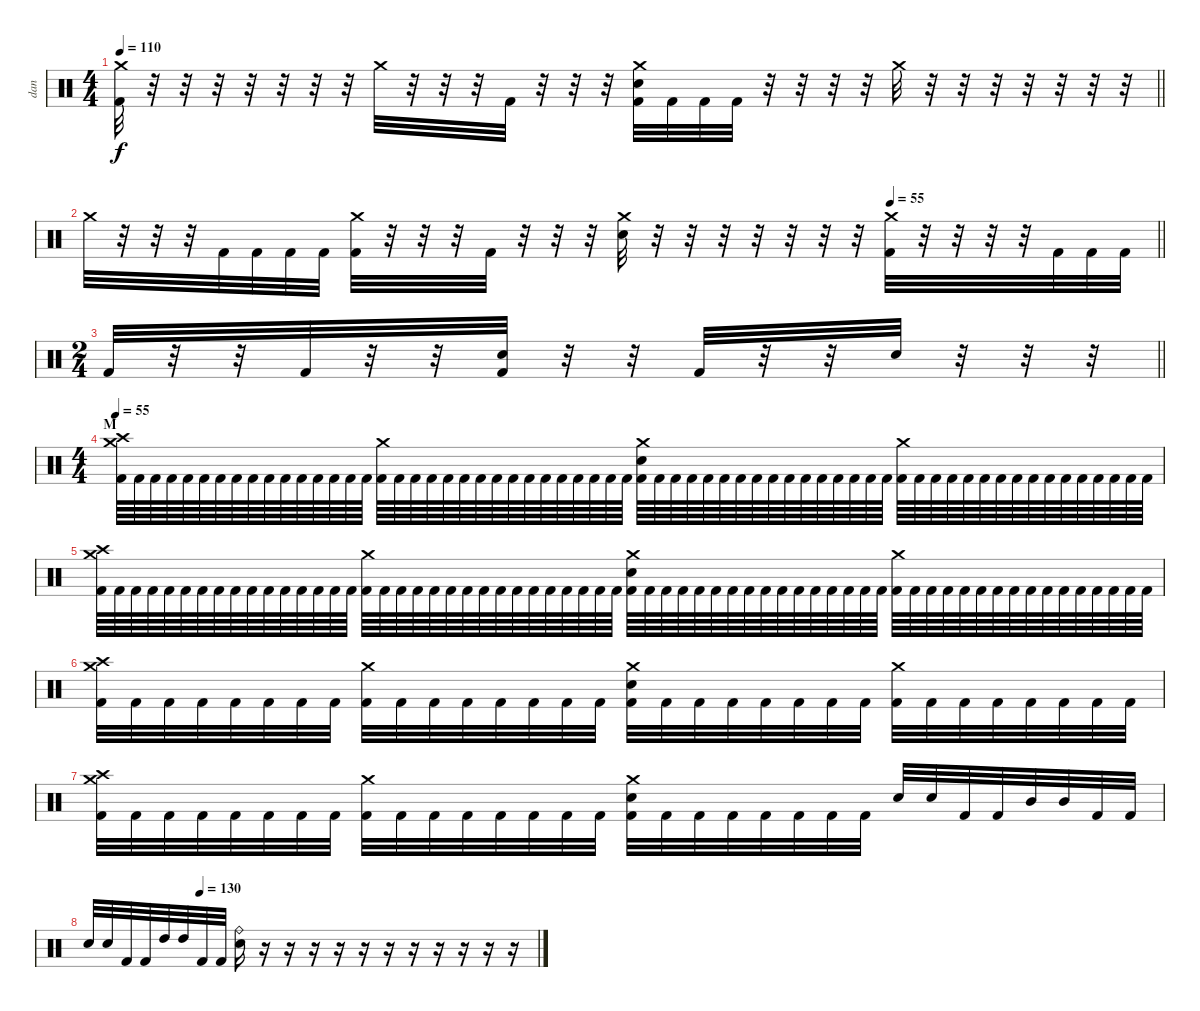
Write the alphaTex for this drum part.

\track ("dan" "dan") {instrument percussion}
\staff {score}
\articulation defaults
\ts (4 4)
\tempo 110
\clef neutral
\barLineRight lightlight
\ks c
("Crash medium (hit)" "Kick (hit) 2").32{dy f} r.32 r.32 r.32 r.32 r.32 r.32 r.32 "Crash medium (hit)".32 r.32 r.32 r.32 "Kick (hit) 2".32 r.32 r.32 r.32 ("Crash medium (hit)" "Electric Snare (hit)" "Kick (hit) 2").32 "Kick (hit) 2".32 "Kick (hit) 2".32 "Kick (hit) 2".32 r.32 r.32 r.32 r.32 "Crash medium (hit)".32 r.32 r.32 r.32 r.32 r.32 r.32 r.32 |
\tempo (55 0.75)
\barLineRight lightlight "Crash medium (hit)".32
r.32 r.32 r.32 "Kick (hit) 2".32 "Kick (hit) 2".32 "Kick (hit) 2".32 "Kick (hit) 2".32 ("Crash medium (hit)" "Kick (hit) 2").32 r.32 r.32 r.32 "Kick (hit) 2".32 r.32 r.32 r.32 ("Crash medium (hit)" "Electric Snare (hit)").32 r.32 r.32 r.32 r.32 r.32 r.32 r.32 ("Crash medium (hit)" "Kick (hit) 2").32 r.32 r.32 r.32 r.32 "Kick (hit) 2".32 "Kick (hit) 2".32 "Kick (hit) 2".32 |
\ts (2 4)
\barLineRight lightlight "Kick (hit) 2".32
r.32 r.32 "Kick (hit) 2".32 r.32 r.32 ("Electric Snare (hit)" "Kick (hit) 2").32 r.32 r.32 "Kick (hit) 2".32 r.32 r.32 "Electric Snare (hit)".32 r.32 r.32 r.32 |
\ts (4 4)
\section ("" "M")
\tempo 55
("Crash medium (hit)" "Crash high (hit)" "Kick (hit) 2").64 "Kick (hit) 2".64 "Kick (hit) 2".64 "Kick (hit) 2".64 "Kick (hit) 2".64 "Kick (hit) 2".64 "Kick (hit) 2".64 "Kick (hit) 2".64 "Kick (hit) 2".64 "Kick (hit) 2".64 "Kick (hit) 2".64 "Kick (hit) 2".64 "Kick (hit) 2".64 "Kick (hit) 2".64 "Kick (hit) 2".64 "Kick (hit) 2".64 ("Crash medium (hit)" "Kick (hit) 2").64 "Kick (hit) 2".64 "Kick (hit) 2".64 "Kick (hit) 2".64 "Kick (hit) 2".64 "Kick (hit) 2".64 "Kick (hit) 2".64 "Kick (hit) 2".64 "Kick (hit) 2".64 "Kick (hit) 2".64 "Kick (hit) 2".64 "Kick (hit) 2".64 "Kick (hit) 2".64 "Kick (hit) 2".64 "Kick (hit) 2".64 "Kick (hit) 2".64 ("Crash medium (hit)" "Electric Snare (hit)" "Kick (hit) 2").64 "Kick (hit) 2".64 "Kick (hit) 2".64 "Kick (hit) 2".64 "Kick (hit) 2".64 "Kick (hit) 2".64 "Kick (hit) 2".64 "Kick (hit) 2".64 "Kick (hit) 2".64 "Kick (hit) 2".64 "Kick (hit) 2".64 "Kick (hit) 2".64 "Kick (hit) 2".64 "Kick (hit) 2".64 "Kick (hit) 2".64 "Kick (hit) 2".64 ("Crash medium (hit)" "Kick (hit) 2").64 "Kick (hit) 2".64 "Kick (hit) 2".64 "Kick (hit) 2".64 "Kick (hit) 2".64 "Kick (hit) 2".64 "Kick (hit) 2".64 "Kick (hit) 2".64 "Kick (hit) 2".64 "Kick (hit) 2".64 "Kick (hit) 2".64 "Kick (hit) 2".64 "Kick (hit) 2".64 "Kick (hit) 2".64 "Kick (hit) 2".64 "Kick (hit) 2".64 |
("Crash medium (hit)" "Crash high (hit)" "Kick (hit) 2").64 "Kick (hit) 2".64 "Kick (hit) 2".64 "Kick (hit) 2".64 "Kick (hit) 2".64 "Kick (hit) 2".64 "Kick (hit) 2".64 "Kick (hit) 2".64 "Kick (hit) 2".64 "Kick (hit) 2".64 "Kick (hit) 2".64 "Kick (hit) 2".64 "Kick (hit) 2".64 "Kick (hit) 2".64 "Kick (hit) 2".64 "Kick (hit) 2".64 ("Crash medium (hit)" "Kick (hit) 2").64 "Kick (hit) 2".64 "Kick (hit) 2".64 "Kick (hit) 2".64 "Kick (hit) 2".64 "Kick (hit) 2".64 "Kick (hit) 2".64 "Kick (hit) 2".64 "Kick (hit) 2".64 "Kick (hit) 2".64 "Kick (hit) 2".64 "Kick (hit) 2".64 "Kick (hit) 2".64 "Kick (hit) 2".64 "Kick (hit) 2".64 "Kick (hit) 2".64 ("Crash medium (hit)" "Electric Snare (hit)" "Kick (hit) 2").64 "Kick (hit) 2".64 "Kick (hit) 2".64 "Kick (hit) 2".64 "Kick (hit) 2".64 "Kick (hit) 2".64 "Kick (hit) 2".64 "Kick (hit) 2".64 "Kick (hit) 2".64 "Kick (hit) 2".64 "Kick (hit) 2".64 "Kick (hit) 2".64 "Kick (hit) 2".64 "Kick (hit) 2".64 "Kick (hit) 2".64 "Kick (hit) 2".64 ("Crash medium (hit)" "Kick (hit) 2").64 "Kick (hit) 2".64 "Kick (hit) 2".64 "Kick (hit) 2".64 "Kick (hit) 2".64 "Kick (hit) 2".64 "Kick (hit) 2".64 "Kick (hit) 2".64 "Kick (hit) 2".64 "Kick (hit) 2".64 "Kick (hit) 2".64 "Kick (hit) 2".64 "Kick (hit) 2".64 "Kick (hit) 2".64 "Kick (hit) 2".64 "Kick (hit) 2".64 |
("Crash medium (hit)" "Crash high (hit)" "Kick (hit) 2").32 "Kick (hit) 2".32 "Kick (hit) 2".32 "Kick (hit) 2".32 "Kick (hit) 2".32 "Kick (hit) 2".32 "Kick (hit) 2".32 "Kick (hit) 2".32 ("Crash medium (hit)" "Kick (hit) 2").32 "Kick (hit) 2".32 "Kick (hit) 2".32 "Kick (hit) 2".32 "Kick (hit) 2".32 "Kick (hit) 2".32 "Kick (hit) 2".32 "Kick (hit) 2".32 ("Crash medium (hit)" "Electric Snare (hit)" "Kick (hit) 2").32 "Kick (hit) 2".32 "Kick (hit) 2".32 "Kick (hit) 2".32 "Kick (hit) 2".32 "Kick (hit) 2".32 "Kick (hit) 2".32 "Kick (hit) 2".32 ("Crash medium (hit)" "Kick (hit) 2").32 "Kick (hit) 2".32 "Kick (hit) 2".32 "Kick (hit) 2".32 "Kick (hit) 2".32 "Kick (hit) 2".32 "Kick (hit) 2".32 "Kick (hit) 2".32 |
("Crash medium (hit)" "Crash high (hit)" "Kick (hit) 2").32 "Kick (hit) 2".32 "Kick (hit) 2".32 "Kick (hit) 2".32 "Kick (hit) 2".32 "Kick (hit) 2".32 "Kick (hit) 2".32 "Kick (hit) 2".32 ("Crash medium (hit)" "Kick (hit) 2").32 "Kick (hit) 2".32 "Kick (hit) 2".32 "Kick (hit) 2".32 "Kick (hit) 2".32 "Kick (hit) 2".32 "Kick (hit) 2".32 "Kick (hit) 2".32 ("Crash medium (hit)" "Electric Snare (hit)" "Kick (hit) 2").32 "Kick (hit) 2".32 "Kick (hit) 2".32 "Kick (hit) 2".32 "Kick (hit) 2".32 "Kick (hit) 2".32 "Kick (hit) 2".32 "Kick (hit) 2".32 "Electric Snare (hit)".32 "Electric Snare (hit)".32 "Kick (hit) 2".32 "Kick (hit) 2".32 "Mid Tom (hit)".32 "Mid Tom (hit)".32 "Kick (hit) 2".32 "Kick (hit) 2".32 |
\tempo (130 0.25)
"Electric Snare (hit)".32 "Electric Snare (hit)".32 "Kick (hit) 2".32 "Kick (hit) 2".32 "High Tom (hit)".32 "High Tom (hit)".32 "Kick (hit) 2".32 "Kick (hit) 2".32 ("Ride (bell)" "Electric Snare (hit)").16 r.16 r.16 r.16 r.16 r.16 r.16 r.16 r.16 r.16 r.16 r.16
